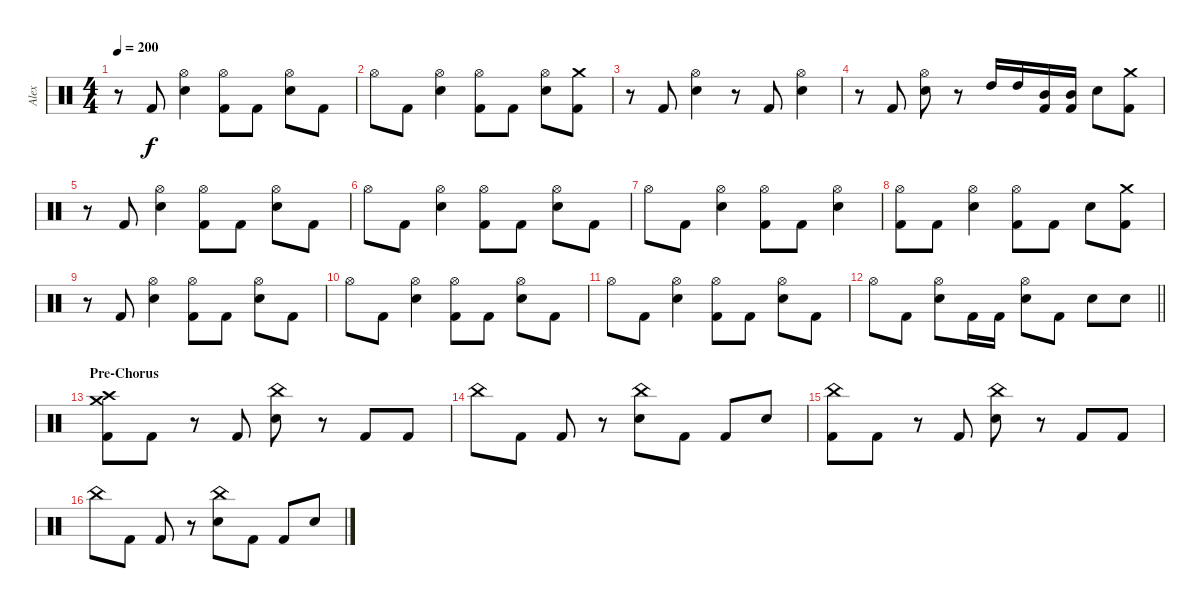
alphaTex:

\track ("Alex" "Alex") {instrument percussion}
\staff {score}
\articulation defaults
\ts (4 4)
\tempo 200
\clef neutral
\ks c
r.8{dy f} "Kick (hit) 2".8 ("Hi-Hat (open)" "Electric Snare (hit)").4 ("Hi-Hat (open)" "Kick (hit) 2").8 "Kick (hit) 2".8 ("Hi-Hat (open)" "Electric Snare (hit)").8 "Kick (hit) 2".8 |
"Hi-Hat (open)".8 "Kick (hit) 2".8 ("Hi-Hat (open)" "Electric Snare (hit)").4 ("Hi-Hat (open)" "Kick (hit) 2").8 "Kick (hit) 2".8 ("Hi-Hat (open)" "Electric Snare (hit)").8 ("Crash medium (hit)" "Kick (hit) 2").8 |
r.8 "Kick (hit) 2".8 ("Hi-Hat (open)" "Electric Snare (hit)").4 r.8 "Kick (hit) 2".8 ("Hi-Hat (open)" "Electric Snare (hit)").4 |
r.8 "Kick (hit) 2".8 ("Hi-Hat (open)" "Electric Snare (hit)").8 r.8 "High Tom (hit)".16 "High Tom (hit)".16 ("Mid Tom (hit)" "Kick (hit) 2").16 ("Mid Tom (hit)" "Kick (hit) 2").16 "Electric Snare (hit)".8 ("Crash medium (hit)" "Kick (hit) 2").8 |
r.8 "Kick (hit) 2".8 ("Hi-Hat (open)" "Electric Snare (hit)").4 ("Hi-Hat (open)" "Kick (hit) 2").8 "Kick (hit) 2".8 ("Hi-Hat (open)" "Electric Snare (hit)").8 "Kick (hit) 2".8 |
"Hi-Hat (open)".8 "Kick (hit) 2".8 ("Hi-Hat (open)" "Electric Snare (hit)").4 ("Hi-Hat (open)" "Kick (hit) 2").8 "Kick (hit) 2".8 ("Hi-Hat (open)" "Electric Snare (hit)").8 "Kick (hit) 2".8 |
"Hi-Hat (open)".8 "Kick (hit) 2".8 ("Hi-Hat (open)" "Electric Snare (hit)").4 ("Hi-Hat (open)" "Kick (hit) 2").8 "Kick (hit) 2".8 ("Hi-Hat (open)" "Electric Snare (hit)").4 |
("Hi-Hat (open)" "Kick (hit) 2").8 "Kick (hit) 2".8 ("Hi-Hat (open)" "Electric Snare (hit)").4 ("Hi-Hat (open)" "Kick (hit) 2").8 "Kick (hit) 2".8 "Electric Snare (hit)".8 ("Crash medium (hit)" "Kick (hit) 2").8 |
r.8 "Kick (hit) 2".8 ("Hi-Hat (open)" "Electric Snare (hit)").4 ("Hi-Hat (open)" "Kick (hit) 2").8 "Kick (hit) 2".8 ("Hi-Hat (open)" "Electric Snare (hit)").8 "Kick (hit) 2".8 |
"Hi-Hat (open)".8 "Kick (hit) 2".8 ("Hi-Hat (open)" "Electric Snare (hit)").4 ("Hi-Hat (open)" "Kick (hit) 2").8 "Kick (hit) 2".8 ("Hi-Hat (open)" "Electric Snare (hit)").8 "Kick (hit) 2".8 |
"Hi-Hat (open)".8 "Kick (hit) 2".8 ("Hi-Hat (open)" "Electric Snare (hit)").4 ("Hi-Hat (open)" "Kick (hit) 2").8 "Kick (hit) 2".8 ("Hi-Hat (open)" "Electric Snare (hit)").8 "Kick (hit) 2".8 |
\barLineRight lightlight "Hi-Hat (open)".8 "Kick (hit) 2".8
("Hi-Hat (open)" "Electric Snare (hit)").8 "Kick (hit) 2".16 "Kick (hit) 2".16 ("Hi-Hat (open)" "Electric Snare (hit)").8 "Kick (hit) 2".8 "Electric Snare (hit)".8 "Electric Snare (hit)".8 |
\section ("" "Pre-Chorus")
("Crash medium (hit)" "Crash high (hit)" "Kick (hit) 2").8 "Kick (hit) 2".8 r.8 "Kick (hit) 2".8 ("China (hit)" "Electric Snare (hit)").8 r.8 "Kick (hit) 2".8 "Kick (hit) 2".8 |
"China (hit)".8 "Kick (hit) 2".8 "Kick (hit) 2".8 r.8 ("China (hit)" "Electric Snare (hit)").8 "Kick (hit) 2".8 "Kick (hit) 2".8 "Electric Snare (hit)".8 |
("China (hit)" "Kick (hit) 2").8 "Kick (hit) 2".8 r.8 "Kick (hit) 2".8 ("China (hit)" "Electric Snare (hit)").8 r.8 "Kick (hit) 2".8 "Kick (hit) 2".8 |
"China (hit)".8 "Kick (hit) 2".8 "Kick (hit) 2".8 r.8 ("China (hit)" "Electric Snare (hit)").8 "Kick (hit) 2".8 "Kick (hit) 2".8 "Electric Snare (hit)".8
